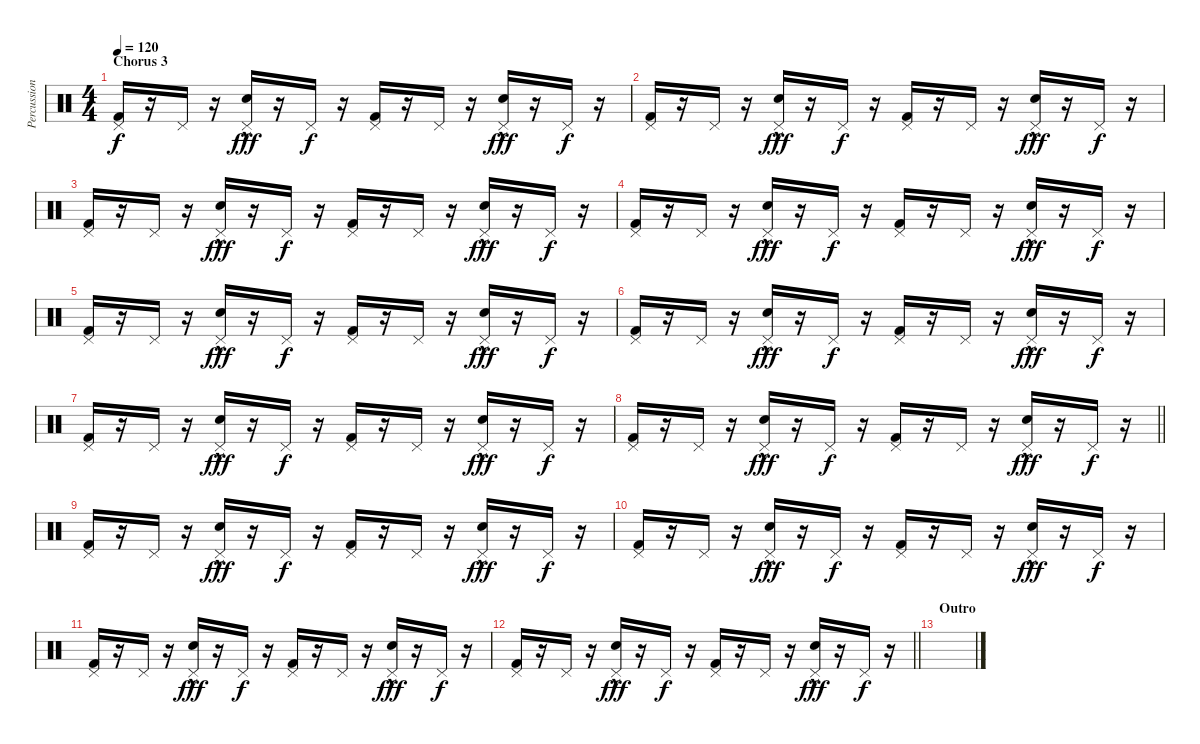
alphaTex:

\track ("Percussion" "Percussion") {instrument percussion}
\staff {score}
\articulation defaults
\ts (4 4)
\section ("" "Chorus 3")
\tempo 120
\clef neutral
\ks c
("Kick (hit) 2" "Pedal Hi-Hat (hit)").16{dy f} r.16 "Pedal Hi-Hat (hit)".16 r.16 ("Snare (hit) 2"{hac} "Pedal Hi-Hat (hit)").16{dy fff} r.16 "Pedal Hi-Hat (hit)".16{dy f} r.16 ("Kick (hit) 2" "Pedal Hi-Hat (hit)").16 r.16 "Pedal Hi-Hat (hit)".16 r.16 ("Snare (hit) 2"{hac} "Pedal Hi-Hat (hit)").16{dy fff} r.16 "Pedal Hi-Hat (hit)".16{dy f} r.16 |
("Kick (hit) 2" "Pedal Hi-Hat (hit)").16 r.16 "Pedal Hi-Hat (hit)".16 r.16 ("Snare (hit) 2"{hac} "Pedal Hi-Hat (hit)").16{dy fff} r.16 "Pedal Hi-Hat (hit)".16{dy f} r.16 ("Kick (hit) 2" "Pedal Hi-Hat (hit)").16 r.16 "Pedal Hi-Hat (hit)".16 r.16 ("Snare (hit) 2"{hac} "Pedal Hi-Hat (hit)").16{dy fff} r.16 "Pedal Hi-Hat (hit)".16{dy f} r.16 |
("Kick (hit) 2" "Pedal Hi-Hat (hit)").16 r.16 "Pedal Hi-Hat (hit)".16 r.16 ("Snare (hit) 2"{hac} "Pedal Hi-Hat (hit)").16{dy fff} r.16 "Pedal Hi-Hat (hit)".16{dy f} r.16 ("Kick (hit) 2" "Pedal Hi-Hat (hit)").16 r.16 "Pedal Hi-Hat (hit)".16 r.16 ("Snare (hit) 2"{hac} "Pedal Hi-Hat (hit)").16{dy fff} r.16 "Pedal Hi-Hat (hit)".16{dy f} r.16 |
("Kick (hit) 2" "Pedal Hi-Hat (hit)").16 r.16 "Pedal Hi-Hat (hit)".16 r.16 ("Snare (hit) 2"{hac} "Pedal Hi-Hat (hit)").16{dy fff} r.16 "Pedal Hi-Hat (hit)".16{dy f} r.16 ("Kick (hit) 2" "Pedal Hi-Hat (hit)").16 r.16 "Pedal Hi-Hat (hit)".16 r.16 ("Snare (hit) 2"{hac} "Pedal Hi-Hat (hit)").16{dy fff} r.16 "Pedal Hi-Hat (hit)".16{dy f} r.16 |
("Kick (hit) 2" "Pedal Hi-Hat (hit)").16 r.16 "Pedal Hi-Hat (hit)".16 r.16 ("Snare (hit) 2"{hac} "Pedal Hi-Hat (hit)").16{dy fff} r.16 "Pedal Hi-Hat (hit)".16{dy f} r.16 ("Kick (hit) 2" "Pedal Hi-Hat (hit)").16 r.16 "Pedal Hi-Hat (hit)".16 r.16 ("Snare (hit) 2"{hac} "Pedal Hi-Hat (hit)").16{dy fff} r.16 "Pedal Hi-Hat (hit)".16{dy f} r.16 |
("Kick (hit) 2" "Pedal Hi-Hat (hit)").16 r.16 "Pedal Hi-Hat (hit)".16 r.16 ("Snare (hit) 2"{hac} "Pedal Hi-Hat (hit)").16{dy fff} r.16 "Pedal Hi-Hat (hit)".16{dy f} r.16 ("Kick (hit) 2" "Pedal Hi-Hat (hit)").16 r.16 "Pedal Hi-Hat (hit)".16 r.16 ("Snare (hit) 2"{hac} "Pedal Hi-Hat (hit)").16{dy fff} r.16 "Pedal Hi-Hat (hit)".16{dy f} r.16 |
("Kick (hit) 2" "Pedal Hi-Hat (hit)").16 r.16 "Pedal Hi-Hat (hit)".16 r.16 ("Snare (hit) 2"{hac} "Pedal Hi-Hat (hit)").16{dy fff} r.16 "Pedal Hi-Hat (hit)".16{dy f} r.16 ("Kick (hit) 2" "Pedal Hi-Hat (hit)").16 r.16 "Pedal Hi-Hat (hit)".16 r.16 ("Snare (hit) 2"{hac} "Pedal Hi-Hat (hit)").16{dy fff} r.16 "Pedal Hi-Hat (hit)".16{dy f} r.16 |
\barLineRight lightlight
("Kick (hit) 2" "Pedal Hi-Hat (hit)").16 r.16 "Pedal Hi-Hat (hit)".16 r.16 ("Snare (hit) 2"{hac} "Pedal Hi-Hat (hit)").16{dy fff} r.16 "Pedal Hi-Hat (hit)".16{dy f} r.16 ("Kick (hit) 2" "Pedal Hi-Hat (hit)").16 r.16 "Pedal Hi-Hat (hit)".16 r.16 ("Snare (hit) 2"{hac} "Pedal Hi-Hat (hit)").16{dy fff} r.16 "Pedal Hi-Hat (hit)".16{dy f} r.16 |
("Kick (hit) 2" "Pedal Hi-Hat (hit)").16 r.16 "Pedal Hi-Hat (hit)".16 r.16 ("Snare (hit) 2"{hac} "Pedal Hi-Hat (hit)").16{dy fff} r.16 "Pedal Hi-Hat (hit)".16{dy f} r.16 ("Kick (hit) 2" "Pedal Hi-Hat (hit)").16 r.16 "Pedal Hi-Hat (hit)".16 r.16 ("Snare (hit) 2"{hac} "Pedal Hi-Hat (hit)").16{dy fff} r.16 "Pedal Hi-Hat (hit)".16{dy f} r.16 |
("Kick (hit) 2" "Pedal Hi-Hat (hit)").16 r.16 "Pedal Hi-Hat (hit)".16 r.16 ("Snare (hit) 2"{hac} "Pedal Hi-Hat (hit)").16{dy fff} r.16 "Pedal Hi-Hat (hit)".16{dy f} r.16 ("Kick (hit) 2" "Pedal Hi-Hat (hit)").16 r.16 "Pedal Hi-Hat (hit)".16 r.16 ("Snare (hit) 2"{hac} "Pedal Hi-Hat (hit)").16{dy fff} r.16 "Pedal Hi-Hat (hit)".16{dy f} r.16 |
("Kick (hit) 2" "Pedal Hi-Hat (hit)").16 r.16 "Pedal Hi-Hat (hit)".16 r.16 ("Snare (hit) 2"{hac} "Pedal Hi-Hat (hit)").16{dy fff} r.16 "Pedal Hi-Hat (hit)".16{dy f} r.16 ("Kick (hit) 2" "Pedal Hi-Hat (hit)").16 r.16 "Pedal Hi-Hat (hit)".16 r.16 ("Snare (hit) 2"{hac} "Pedal Hi-Hat (hit)").16{dy fff} r.16 "Pedal Hi-Hat (hit)".16{dy f} r.16 |
\barLineRight lightlight
("Kick (hit) 2" "Pedal Hi-Hat (hit)").16 r.16 "Pedal Hi-Hat (hit)".16 r.16 ("Snare (hit) 2"{hac} "Pedal Hi-Hat (hit)").16{dy fff} r.16 "Pedal Hi-Hat (hit)".16{dy f} r.16 ("Kick (hit) 2" "Pedal Hi-Hat (hit)").16 r.16 "Pedal Hi-Hat (hit)".16 r.16 ("Snare (hit) 2"{hac} "Pedal Hi-Hat (hit)").16{dy fff} r.16 "Pedal Hi-Hat (hit)".16{dy f} r.16 |
\section ("" "Outro")
